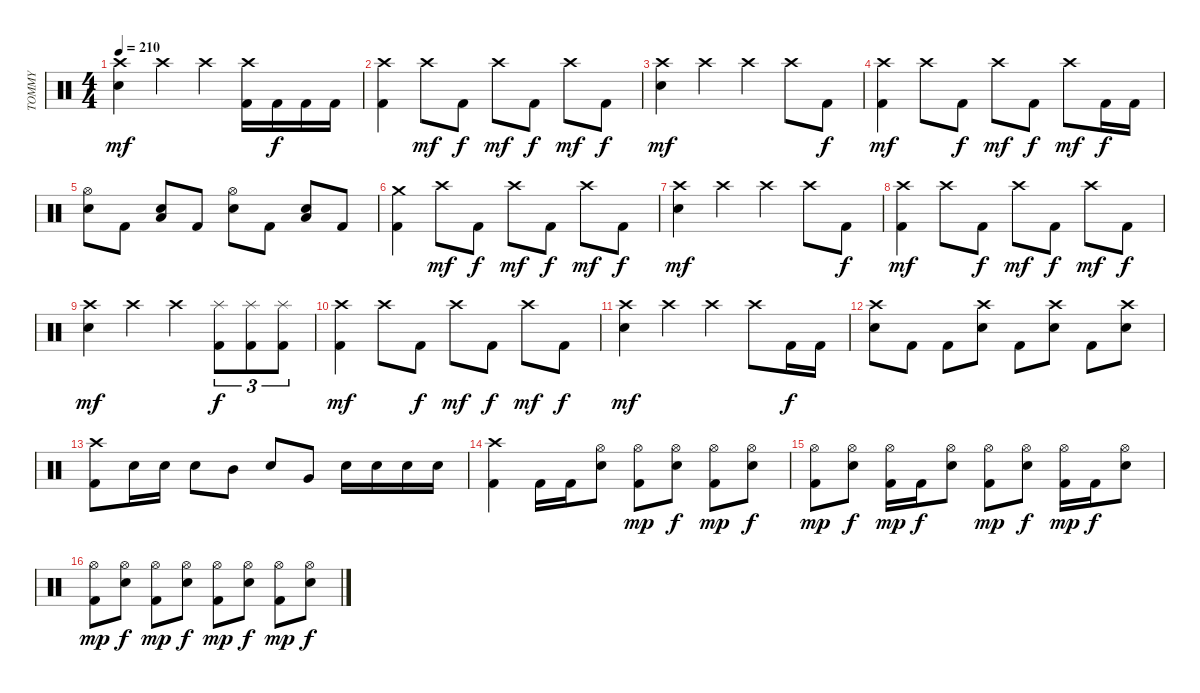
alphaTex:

\track ("TOMMY" "TOMMY") {instrument percussion}
\staff {score}
\articulation defaults
\ts (4 4)
\tempo 210
\clef neutral
\ks c
("Snare (hit) 2" "Crash high (hit)").4{dy mf} "Crash high (hit)".4 "Crash high (hit)".4 ("Kick (hit) 2" "Crash high (hit)").16 "Kick (hit) 2".16{dy f} "Kick (hit) 2".16 "Kick (hit) 2".16 |
("Kick (hit) 2" "Crash high (hit)").4 "Crash high (hit)".8{dy mf} "Kick (hit) 2".8{dy f} "Crash high (hit)".8{dy mf} "Kick (hit) 2".8{dy f} "Crash high (hit)".8{dy mf} "Kick (hit) 2".8{dy f} |
("Snare (hit) 2" "Crash high (hit)").4{dy mf} "Crash high (hit)".4 "Crash high (hit)".4 "Crash high (hit)".8 "Kick (hit) 2".8{dy f} |
("Kick (hit) 2" "Crash high (hit)").4{dy mf} "Crash high (hit)".8 "Kick (hit) 2".8{dy f} "Crash high (hit)".8{dy mf} "Kick (hit) 2".8{dy f} "Crash high (hit)".8{dy mf} "Kick (hit) 2".16{dy f} "Kick (hit) 2".16 |
("Snare (hit) 2" "Hi-Hat (open)").8 "Kick (hit) 2".8 ("Snare (hit) 2" "Low Floor Tom (hit)").8 "Kick (hit) 2".8 ("Snare (hit) 2" "Hi-Hat (open)").8 "Kick (hit) 2".8 ("Snare (hit) 2" "Low Floor Tom (hit)").8 "Kick (hit) 2".8 |
("Kick (hit) 2" "Crash medium (hit)").4 "Crash high (hit)".8{dy mf} "Kick (hit) 2".8{dy f} "Crash high (hit)".8{dy mf} "Kick (hit) 2".8{dy f} "Crash high (hit)".8{dy mf} "Kick (hit) 2".8{dy f} |
("Snare (hit) 2" "Crash high (hit)").4{dy mf} "Crash high (hit)".4 "Crash high (hit)".4 "Crash high (hit)".8 "Kick (hit) 2".8{dy f} |
("Kick (hit) 2" "Crash high (hit)").4{dy mf} "Crash high (hit)".8 "Kick (hit) 2".8{dy f} "Crash high (hit)".8{dy mf} "Kick (hit) 2".8{dy f} "Crash high (hit)".8{dy mf} "Kick (hit) 2".8{dy f} |
("Snare (hit) 2" "Crash high (hit)").4{dy mf} "Crash high (hit)".4 "Crash high (hit)".4 ("Kick (hit) 2" "Splash (hit)").8{tu (3 2) dy f} ("Kick (hit) 2" "Splash (hit)").8{tu (3 2)} ("Kick (hit) 2" "Splash (hit)").8{tu (3 2)} |
("Kick (hit) 2" "Crash high (hit)").4{dy mf} "Crash high (hit)".8 "Kick (hit) 2".8{dy f} "Crash high (hit)".8{dy mf} "Kick (hit) 2".8{dy f} "Crash high (hit)".8{dy mf} "Kick (hit) 2".8{dy f} |
("Snare (hit) 2" "Crash high (hit)").4{dy mf} "Crash high (hit)".4 "Crash high (hit)".4 "Crash high (hit)".8 "Kick (hit) 2".16{dy f} "Kick (hit) 2".16 |
("Snare (hit) 2" "Crash high (hit)").8 "Kick (hit) 2".8 "Kick (hit) 2".8 ("Snare (hit) 2" "Crash high (hit)").8 "Kick (hit) 2".8 ("Snare (hit) 2" "Crash high (hit)").8 "Kick (hit) 2".8 ("Snare (hit) 2" "Crash high (hit)").8 |
("Kick (hit) 2" "Crash high (hit)").8 "Snare (hit) 2".16 "Snare (hit) 2".16 "Snare (hit) 2".8 "Mid Tom (hit)".8 "Snare (hit) 2".8 "Very Low Tom (hit)".8 "Snare (hit) 2".16 "Snare (hit) 2".16 "Snare (hit) 2".16 "Snare (hit) 2".16 |
("Kick (hit) 2" "Crash high (hit)").4 "Kick (hit) 2".16 "Kick (hit) 2".16 ("Snare (hit) 2" "Hi-Hat (open)").8 ("Kick (hit) 2" "Hi-Hat (open)").8{dy mp} ("Snare (hit) 2" "Hi-Hat (open)").8{dy f} ("Kick (hit) 2" "Hi-Hat (open)").8{dy mp} ("Snare (hit) 2" "Hi-Hat (open)").8{dy f} |
("Kick (hit) 2" "Hi-Hat (open)").8{dy mp} ("Snare (hit) 2" "Hi-Hat (open)").8{dy f} ("Kick (hit) 2" "Hi-Hat (open)").16{dy mp} "Kick (hit) 2".16{dy f} ("Snare (hit) 2" "Hi-Hat (open)").8 ("Kick (hit) 2" "Hi-Hat (open)").8{dy mp} ("Snare (hit) 2" "Hi-Hat (open)").8{dy f} ("Kick (hit) 2" "Hi-Hat (open)").16{dy mp} "Kick (hit) 2".16{dy f} ("Snare (hit) 2" "Hi-Hat (open)").8 |
("Kick (hit) 2" "Hi-Hat (open)").8{dy mp} ("Snare (hit) 2" "Hi-Hat (open)").8{dy f} ("Kick (hit) 2" "Hi-Hat (open)").8{dy mp} ("Snare (hit) 2" "Hi-Hat (open)").8{dy f} ("Kick (hit) 2" "Hi-Hat (open)").8{dy mp} ("Snare (hit) 2" "Hi-Hat (open)").8{dy f} ("Kick (hit) 2" "Hi-Hat (open)").8{dy mp} ("Snare (hit) 2" "Hi-Hat (open)").8{dy f}
